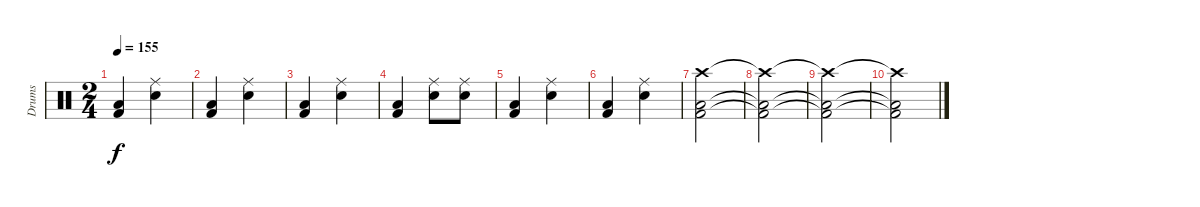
\track ("Drums" "Drums") {instrument percussion}
\staff {score}
\articulation defaults
\ts (2 4)
\tempo 155
\clef neutral
\ks c
("Low Floor Tom (hit)" "Kick (hit) 2").4{dy f} ("Snare (hit) 2" "Ride (middle)").4 |
("Low Floor Tom (hit)" "Kick (hit) 2").4 ("Snare (hit) 2" "Ride (middle)").4 |
("Low Floor Tom (hit)" "Kick (hit) 2").4 ("Snare (hit) 2" "Ride (middle)").4 |
("Low Floor Tom (hit)" "Kick (hit) 2").4 ("Snare (hit) 2" "Ride (middle)").8 ("Snare (hit) 2" "Ride (middle)").8 |
("Low Floor Tom (hit)" "Kick (hit) 2").4 ("Snare (hit) 2" "Ride (middle)").4 |
("Low Floor Tom (hit)" "Kick (hit) 2").4 ("Snare (hit) 2" "Ride (middle)").4 |
("Low Floor Tom (hit)" "Kick (hit) 2" "Crash high (hit)").2 |
("Low Floor Tom (hit)"{t} "Kick (hit) 2"{t} "Crash high (hit)"{t}).2 |
("Low Floor Tom (hit)"{t} "Kick (hit) 2"{t} "Crash high (hit)"{t}).2 |
("Low Floor Tom (hit)"{t} "Kick (hit) 2"{t} "Crash high (hit)"{t}).2
